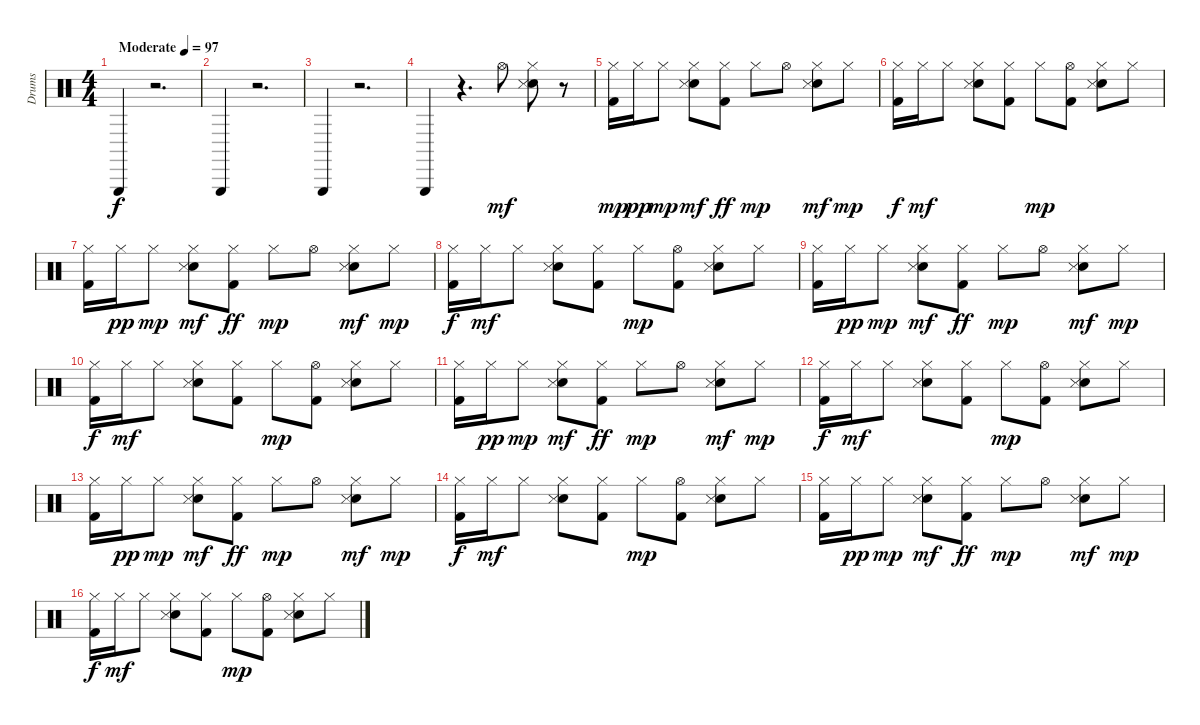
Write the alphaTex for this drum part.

\track ("Drums" "Drums") {instrument percussion}
\staff {score}
\articulation defaults
\ts (4 4)
\tempo (97 "Moderate")
\clef neutral
\ks c "Triangle (hit)".4{dy f}
r.2{d} |
"Triangle (hit)".4 r.2{d} |
"Triangle (hit)".4 r.2{d} |
"Triangle (hit)".4 r.4{d} "Hi-Hat (open)".8{dy mf volume 12} ("Hi-Hat (closed)" "Hand Clap (hit)" "Snare (side stick) 3").8 r.8 |
("Hi-Hat (closed)" "Kick (hit) 2").16{dy mp} "Hi-Hat (closed)".16{dy pp} "Hi-Hat (closed)".8{dy mp} ("Hi-Hat (closed)" "Hand Clap (hit)" "Snare (side stick) 3").8{dy mf} ("Hi-Hat (closed)" "Kick (hit) 2").8{dy ff} "Hi-Hat (closed)".8{dy mp} "Hi-Hat (open)".8 ("Hi-Hat (closed)" "Hand Clap (hit)" "Snare (side stick) 3").8{dy mf} "Hi-Hat (closed)".8{dy mp} |
("Hi-Hat (closed)" "Kick (hit) 2").16{dy f} "Hi-Hat (closed)".16{dy mf} "Hi-Hat (closed)".8 ("Hi-Hat (closed)" "Hand Clap (hit)" "Snare (side stick) 3").8 ("Hi-Hat (closed)" "Kick (hit) 2").8 "Hi-Hat (closed)".8{dy mp} ("Kick (hit) 2" "Hi-Hat (open)").8 ("Hi-Hat (closed)" "Hand Clap (hit)" "Snare (side stick) 3").8 "Hi-Hat (closed)".8 |
("Hi-Hat (closed)" "Kick (hit) 2").16 "Hi-Hat (closed)".16{dy pp} "Hi-Hat (closed)".8{dy mp} ("Hi-Hat (closed)" "Hand Clap (hit)" "Snare (side stick) 3").8{dy mf} ("Hi-Hat (closed)" "Kick (hit) 2").8{dy ff} "Hi-Hat (closed)".8{dy mp} "Hi-Hat (open)".8 ("Hi-Hat (closed)" "Hand Clap (hit)" "Snare (side stick) 3").8{dy mf} "Hi-Hat (closed)".8{dy mp} |
("Hi-Hat (closed)" "Kick (hit) 2").16{dy f} "Hi-Hat (closed)".16{dy mf} "Hi-Hat (closed)".8 ("Hi-Hat (closed)" "Hand Clap (hit)" "Snare (side stick) 3").8 ("Hi-Hat (closed)" "Kick (hit) 2").8 "Hi-Hat (closed)".8{dy mp} ("Kick (hit) 2" "Hi-Hat (open)").8 ("Hi-Hat (closed)" "Hand Clap (hit)" "Snare (side stick) 3").8 "Hi-Hat (closed)".8 |
("Hi-Hat (closed)" "Kick (hit) 2").16 "Hi-Hat (closed)".16{dy pp} "Hi-Hat (closed)".8{dy mp} ("Hi-Hat (closed)" "Hand Clap (hit)" "Snare (side stick) 3").8{dy mf} ("Hi-Hat (closed)" "Kick (hit) 2").8{dy ff} "Hi-Hat (closed)".8{dy mp} "Hi-Hat (open)".8 ("Hi-Hat (closed)" "Hand Clap (hit)" "Snare (side stick) 3").8{dy mf} "Hi-Hat (closed)".8{dy mp} |
("Hi-Hat (closed)" "Kick (hit) 2").16{dy f} "Hi-Hat (closed)".16{dy mf} "Hi-Hat (closed)".8 ("Hi-Hat (closed)" "Hand Clap (hit)" "Snare (side stick) 3").8 ("Hi-Hat (closed)" "Kick (hit) 2").8 "Hi-Hat (closed)".8{dy mp} ("Kick (hit) 2" "Hi-Hat (open)").8 ("Hi-Hat (closed)" "Hand Clap (hit)" "Snare (side stick) 3").8 "Hi-Hat (closed)".8 |
("Hi-Hat (closed)" "Kick (hit) 2").16 "Hi-Hat (closed)".16{dy pp} "Hi-Hat (closed)".8{dy mp} ("Hi-Hat (closed)" "Hand Clap (hit)" "Snare (side stick) 3").8{dy mf} ("Hi-Hat (closed)" "Kick (hit) 2").8{dy ff} "Hi-Hat (closed)".8{dy mp} "Hi-Hat (open)".8 ("Hi-Hat (closed)" "Hand Clap (hit)" "Snare (side stick) 3").8{dy mf} "Hi-Hat (closed)".8{dy mp} |
("Hi-Hat (closed)" "Kick (hit) 2").16{dy f} "Hi-Hat (closed)".16{dy mf} "Hi-Hat (closed)".8 ("Hi-Hat (closed)" "Hand Clap (hit)" "Snare (side stick) 3").8 ("Hi-Hat (closed)" "Kick (hit) 2").8 "Hi-Hat (closed)".8{dy mp} ("Kick (hit) 2" "Hi-Hat (open)").8 ("Hi-Hat (closed)" "Hand Clap (hit)" "Snare (side stick) 3").8 "Hi-Hat (closed)".8 |
("Hi-Hat (closed)" "Kick (hit) 2").16 "Hi-Hat (closed)".16{dy pp} "Hi-Hat (closed)".8{dy mp} ("Hi-Hat (closed)" "Hand Clap (hit)" "Snare (side stick) 3").8{dy mf} ("Hi-Hat (closed)" "Kick (hit) 2").8{dy ff} "Hi-Hat (closed)".8{dy mp} "Hi-Hat (open)".8 ("Hi-Hat (closed)" "Hand Clap (hit)" "Snare (side stick) 3").8{dy mf} "Hi-Hat (closed)".8{dy mp} |
("Hi-Hat (closed)" "Kick (hit) 2").16{dy f} "Hi-Hat (closed)".16{dy mf} "Hi-Hat (closed)".8 ("Hi-Hat (closed)" "Hand Clap (hit)" "Snare (side stick) 3").8 ("Hi-Hat (closed)" "Kick (hit) 2").8 "Hi-Hat (closed)".8{dy mp} ("Kick (hit) 2" "Hi-Hat (open)").8 ("Hi-Hat (closed)" "Hand Clap (hit)" "Snare (side stick) 3").8 "Hi-Hat (closed)".8 |
("Hi-Hat (closed)" "Kick (hit) 2").16 "Hi-Hat (closed)".16{dy pp} "Hi-Hat (closed)".8{dy mp} ("Hi-Hat (closed)" "Hand Clap (hit)" "Snare (side stick) 3").8{dy mf} ("Hi-Hat (closed)" "Kick (hit) 2").8{dy ff} "Hi-Hat (closed)".8{dy mp} "Hi-Hat (open)".8 ("Hi-Hat (closed)" "Hand Clap (hit)" "Snare (side stick) 3").8{dy mf} "Hi-Hat (closed)".8{dy mp} |
("Hi-Hat (closed)" "Kick (hit) 2").16{dy f} "Hi-Hat (closed)".16{dy mf} "Hi-Hat (closed)".8 ("Hi-Hat (closed)" "Hand Clap (hit)" "Snare (side stick) 3").8 ("Hi-Hat (closed)" "Kick (hit) 2").8 "Hi-Hat (closed)".8{dy mp} ("Kick (hit) 2" "Hi-Hat (open)").8 ("Hi-Hat (closed)" "Hand Clap (hit)" "Snare (side stick) 3").8 "Hi-Hat (closed)".8
